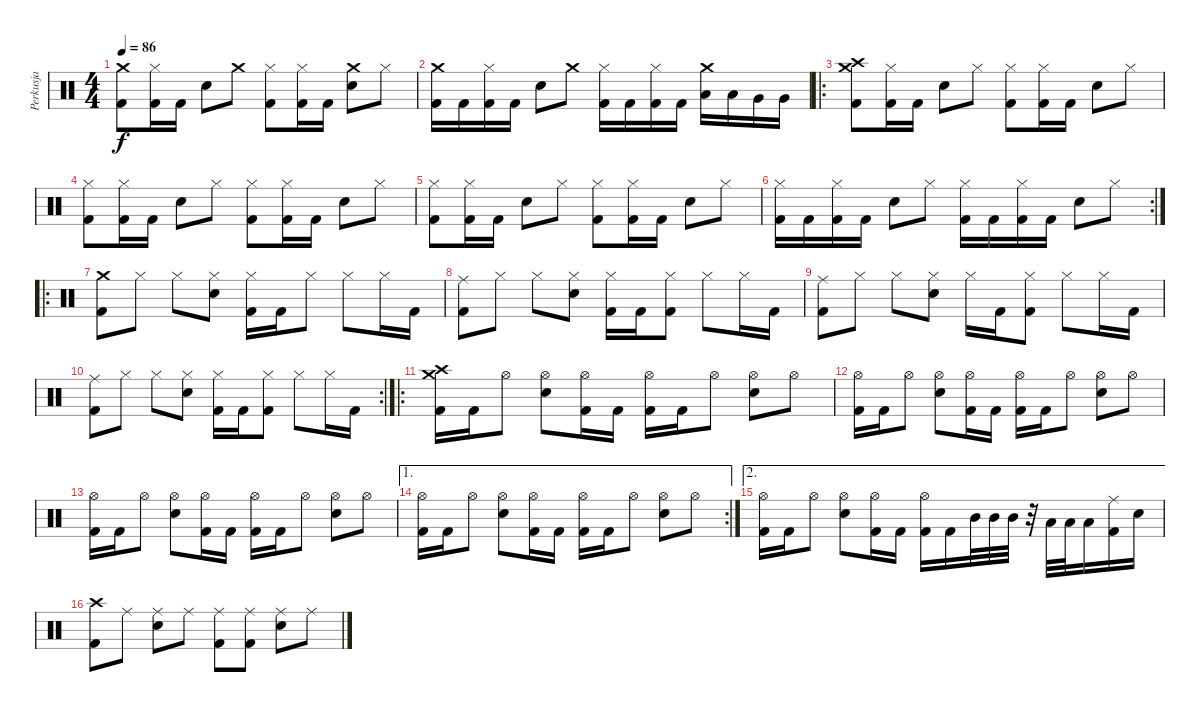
\track ("Perkusja" "Perkusja") {instrument percussion}
\staff {score}
\articulation defaults
\ts (4 4)
\tempo 86
\clef neutral
\ks c
("Crash medium (hit)" "Kick (hit) 2").8{dy f} ("Hi-Hat (closed)" "Kick (hit) 2").16 "Kick (hit) 2".16 "Snare (hit) 2".8 "Crash medium (hit)".8 ("Hi-Hat (closed)" "Kick (hit) 2").8 ("Hi-Hat (closed)" "Kick (hit) 2").16 "Kick (hit) 2".16 ("Crash medium (hit)" "Snare (hit) 2").8 "Hi-Hat (closed)".8 |
("Crash medium (hit)" "Kick (hit) 2").16 "Kick (hit) 2".16 ("Hi-Hat (closed)" "Kick (hit) 2").16 "Kick (hit) 2".16 "Snare (hit) 2".8 "Crash medium (hit)".8 ("Hi-Hat (closed)" "Kick (hit) 2").16 "Kick (hit) 2".16 ("Hi-Hat (closed)" "Kick (hit) 2").16 "Kick (hit) 2".16 ("Crash medium (hit)" "Low Tom (hit)").16 "Low Tom (hit)".16 "Very Low Tom (hit)".16 "Very Low Tom (hit)".16 |
\ro
("Crash high (hit)" "Crash medium (hit)" "Kick (hit) 2").8 ("Hi-Hat (closed)" "Kick (hit) 2").16 "Kick (hit) 2".16 "Snare (hit) 2".8 "Hi-Hat (closed)".8 ("Hi-Hat (closed)" "Kick (hit) 2").8 ("Hi-Hat (closed)" "Kick (hit) 2").16 "Kick (hit) 2".16 "Snare (hit) 2".8 "Hi-Hat (closed)".8 |
("Hi-Hat (closed)" "Kick (hit) 2").8 ("Hi-Hat (closed)" "Kick (hit) 2").16 "Kick (hit) 2".16 "Snare (hit) 2".8 "Hi-Hat (closed)".8 ("Hi-Hat (closed)" "Kick (hit) 2").8 ("Hi-Hat (closed)" "Kick (hit) 2").16 "Kick (hit) 2".16 "Snare (hit) 2".8 "Hi-Hat (closed)".8 |
("Hi-Hat (closed)" "Kick (hit) 2").8 ("Hi-Hat (closed)" "Kick (hit) 2").16 "Kick (hit) 2".16 "Snare (hit) 2".8 "Hi-Hat (closed)".8 ("Hi-Hat (closed)" "Kick (hit) 2").8 ("Hi-Hat (closed)" "Kick (hit) 2").16 "Kick (hit) 2".16 "Snare (hit) 2".8 "Hi-Hat (closed)".8 |
\rc 2
("Hi-Hat (closed)" "Kick (hit) 2").16 "Kick (hit) 2".16 ("Hi-Hat (closed)" "Kick (hit) 2").16 "Kick (hit) 2".16 "Snare (hit) 2".8 "Hi-Hat (closed)".8 ("Hi-Hat (closed)" "Kick (hit) 2").16 "Kick (hit) 2".16 ("Hi-Hat (closed)" "Kick (hit) 2").16 "Kick (hit) 2".16 "Snare (hit) 2".8 "Hi-Hat (closed)".8 |
\ro
("Crash medium (hit)" "Kick (hit) 2").8 "Hi-Hat (closed)".8 "Hi-Hat (closed)".8 ("Hi-Hat (closed)" "Snare (hit) 2").8 ("Hi-Hat (closed)" "Kick (hit) 2").16 "Kick (hit) 2".16 "Hi-Hat (closed)".8 "Hi-Hat (closed)".8 "Hi-Hat (closed)".16 "Kick (hit) 2".16 |
("Ride (middle)" "Kick (hit) 2").8 "Hi-Hat (closed)".8 "Hi-Hat (closed)".8 ("Hi-Hat (closed)" "Snare (hit) 2").8 ("Hi-Hat (closed)" "Kick (hit) 2").16 "Kick (hit) 2".16 ("Hi-Hat (closed)" "Kick (hit) 2").8 "Hi-Hat (closed)".8 "Hi-Hat (closed)".16 "Kick (hit) 2".16 |
("Ride (middle)" "Kick (hit) 2").8 "Hi-Hat (closed)".8 "Hi-Hat (closed)".8 ("Hi-Hat (closed)" "Snare (hit) 2").8 "Hi-Hat (closed)".16 "Kick (hit) 2".16 ("Hi-Hat (closed)" "Kick (hit) 2").8 "Hi-Hat (closed)".8 "Hi-Hat (closed)".16 "Kick (hit) 2".16 |
\rc 2
("Ride (middle)" "Kick (hit) 2").8 "Hi-Hat (closed)".8 "Hi-Hat (closed)".8 ("Hi-Hat (closed)" "Snare (hit) 2").8 ("Hi-Hat (closed)" "Kick (hit) 2").16 "Kick (hit) 2".16 ("Hi-Hat (closed)" "Kick (hit) 2").8 "Hi-Hat (closed)".8 "Hi-Hat (closed)".16 "Kick (hit) 2".16 |
\ro
("Crash high (hit)" "Crash medium (hit)" "Kick (hit) 2").16 "Kick (hit) 2".16 "Hi-Hat (open)".8 ("Hi-Hat (open)" "Snare (hit) 2").8 ("Hi-Hat (open)" "Kick (hit) 2").16 "Kick (hit) 2".16 ("Hi-Hat (open)" "Kick (hit) 2").16 "Kick (hit) 2".16 "Hi-Hat (open)".8 ("Hi-Hat (open)" "Snare (hit) 2").8 "Hi-Hat (open)".8 |
("Hi-Hat (open)" "Kick (hit) 2").16 "Kick (hit) 2".16 "Hi-Hat (open)".8 ("Hi-Hat (open)" "Snare (hit) 2").8 ("Hi-Hat (open)" "Kick (hit) 2").16 "Kick (hit) 2".16 ("Hi-Hat (open)" "Kick (hit) 2").16 "Kick (hit) 2".16 "Hi-Hat (open)".8 ("Hi-Hat (open)" "Snare (hit) 2").8 "Hi-Hat (open)".8 |
("Hi-Hat (open)" "Kick (hit) 2").16 "Kick (hit) 2".16 "Hi-Hat (open)".8 ("Hi-Hat (open)" "Snare (hit) 2").8 ("Hi-Hat (open)" "Kick (hit) 2").16 "Kick (hit) 2".16 ("Hi-Hat (open)" "Kick (hit) 2").16 "Kick (hit) 2".16 "Hi-Hat (open)".8 ("Hi-Hat (open)" "Snare (hit) 2").8 "Hi-Hat (open)".8 |
\ae 1
\rc 2
("Hi-Hat (open)" "Kick (hit) 2").16 "Kick (hit) 2".16 "Hi-Hat (open)".8 ("Hi-Hat (open)" "Snare (hit) 2").8 ("Hi-Hat (open)" "Kick (hit) 2").16 "Kick (hit) 2".16 ("Hi-Hat (open)" "Kick (hit) 2").16 "Kick (hit) 2".16 "Hi-Hat (open)".8 ("Hi-Hat (open)" "Snare (hit) 2").8 "Hi-Hat (open)".8 |
\ae 2
("Hi-Hat (open)" "Kick (hit) 2").16 "Kick (hit) 2".16 "Hi-Hat (open)".8 ("Hi-Hat (open)" "Snare (hit) 2").8 ("Hi-Hat (open)" "Kick (hit) 2").16 "Kick (hit) 2".16 ("Hi-Hat (open)" "Kick (hit) 2").16 "Kick (hit) 2".16 "Mid Tom (hit)".32 "Mid Tom (hit)".32 "Mid Tom (hit)".32 r.32 "Low Tom (hit)".32 "Low Tom (hit)".32 "Low Tom (hit)".16 ("Ride (middle)" "Kick (hit) 2").16 "Snare (hit) 2".16 |
("Crash high (hit)" "Kick (hit) 2").8 "Ride (middle)".8 ("Ride (middle)" "Snare (hit) 2").8 "Ride (middle)".8 ("Ride (middle)" "Kick (hit) 2").8 ("Ride (middle)" "Kick (hit) 2").8 ("Ride (middle)" "Snare (hit) 2").8 "Ride (middle)".8
